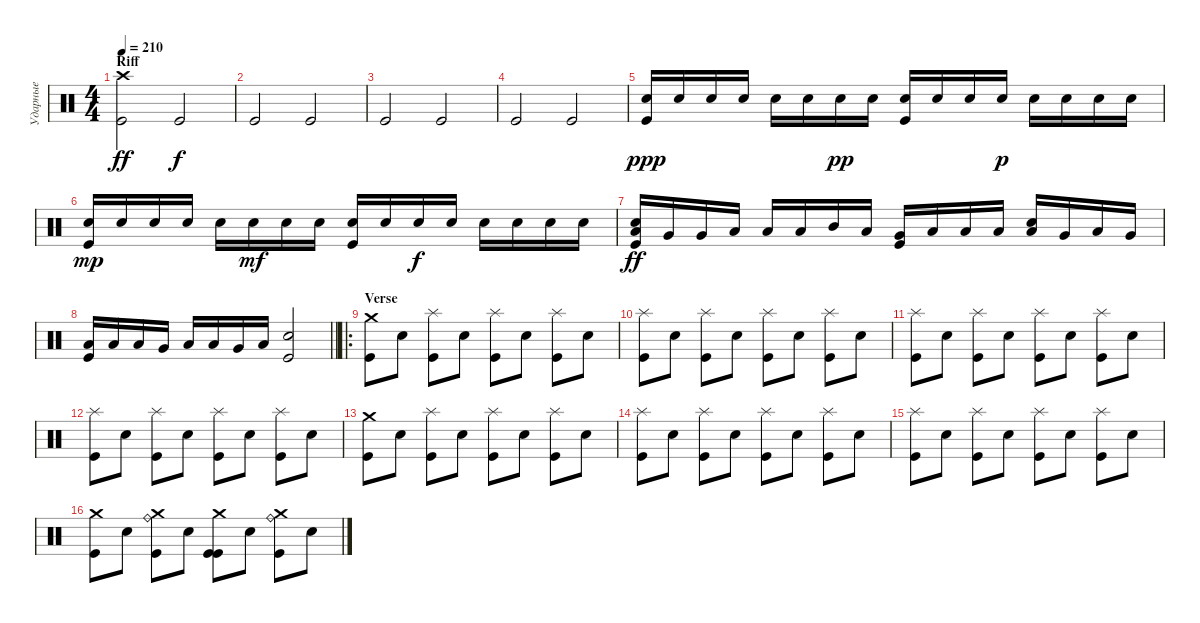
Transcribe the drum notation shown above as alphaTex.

\track ("Ударные" "Ударные") {instrument percussion}
\staff {score}
\articulation defaults
\ts (4 4)
\section ("" "Riff")
\tempo 210
\clef neutral
\ks c
("Crash high (hit)" "Kick (hit)").2{dy ff} "Kick (hit)".2{dy f} |
"Kick (hit)".2 "Kick (hit)".2 |
"Kick (hit)".2 "Kick (hit)".2 |
"Kick (hit)".2 "Kick (hit)".2 |
("Electric Snare (hit)" "Kick (hit)").16{dy ppp} "Electric Snare (hit)".16 "Electric Snare (hit)".16 "Electric Snare (hit)".16 "Electric Snare (hit)".16 "Electric Snare (hit)".16 "Electric Snare (hit)".16{dy pp} "Electric Snare (hit)".16 ("Electric Snare (hit)" "Kick (hit)").16 "Electric Snare (hit)".16 "Electric Snare (hit)".16 "Electric Snare (hit)".16{dy p} "Electric Snare (hit)".16 "Electric Snare (hit)".16 "Electric Snare (hit)".16 "Electric Snare (hit)".16 |
("Electric Snare (hit)" "Kick (hit)").16{dy mp} "Electric Snare (hit)".16 "Electric Snare (hit)".16 "Electric Snare (hit)".16 "Electric Snare (hit)".16 "Electric Snare (hit)".16{dy mf} "Electric Snare (hit)".16 "Electric Snare (hit)".16 ("Electric Snare (hit)" "Kick (hit)").16 "Electric Snare (hit)".16 "Electric Snare (hit)".16{dy f} "Electric Snare (hit)".16 "Electric Snare (hit)".16 "Electric Snare (hit)".16 "Electric Snare (hit)".16 "Electric Snare (hit)".16 |
("Electric Snare (hit)" "Low Tom (hit)" "Kick (hit)").16{dy ff} "Very Low Tom (hit)".16 "Very Low Tom (hit)".16 "Low Floor Tom (hit)".16 "Low Floor Tom (hit)".16 "Low Floor Tom (hit)".16 "Mid Tom (hit)".16 "Low Tom (hit)".16 ("Very Low Tom (hit)" "Kick (hit)").16 "Low Floor Tom (hit)".16 "Low Floor Tom (hit)".16 "Low Floor Tom (hit)".16 ("Electric Snare (hit)" "Low Tom (hit)").16 "Very Low Tom (hit)".16 "Low Floor Tom (hit)".16 "Very Low Tom (hit)".16 |
\barLineRight lightlight
("Low Floor Tom (hit)" "Kick (hit)").16 "Low Floor Tom (hit)".16 "Low Tom (hit)".16 "Very Low Tom (hit)".16 "Low Floor Tom (hit)".16 "Low Floor Tom (hit)".16 "Very Low Tom (hit)".16 "Low Floor Tom (hit)".16 ("Electric Snare (hit)" "Kick (hit)").2 |
\ro
\section ("" "Verse")
("Crash medium (hit)" "Kick (hit)").8 "Electric Snare (hit)".8 ("Splash (hit)" "Kick (hit)").8 "Electric Snare (hit)".8 ("Splash (hit)" "Kick (hit)").8 "Electric Snare (hit)".8 ("Splash (hit)" "Kick (hit)").8 "Electric Snare (hit)".8 |
("Splash (hit)" "Kick (hit)").8 "Electric Snare (hit)".8 ("Splash (hit)" "Kick (hit)").8 "Electric Snare (hit)".8 ("Splash (hit)" "Kick (hit)").8 "Electric Snare (hit)".8 ("Splash (hit)" "Kick (hit)").8 "Electric Snare (hit)".8 |
("Splash (hit)" "Kick (hit)").8 "Electric Snare (hit)".8 ("Splash (hit)" "Kick (hit)").8 "Electric Snare (hit)".8 ("Splash (hit)" "Kick (hit)").8 "Electric Snare (hit)".8 ("Splash (hit)" "Kick (hit)").8 "Electric Snare (hit)".8 |
("Splash (hit)" "Kick (hit)").8 "Electric Snare (hit)".8 ("Splash (hit)" "Kick (hit)").8 "Electric Snare (hit)".8 ("Splash (hit)" "Kick (hit)").8 "Electric Snare (hit)".8 ("Splash (hit)" "Kick (hit)").8 "Electric Snare (hit)".8 |
("Crash medium (hit)" "Kick (hit)").8 "Electric Snare (hit)".8 ("Splash (hit)" "Kick (hit)").8 "Electric Snare (hit)".8 ("Splash (hit)" "Kick (hit)").8 "Electric Snare (hit)".8 ("Splash (hit)" "Kick (hit)").8 "Electric Snare (hit)".8 |
("Splash (hit)" "Kick (hit)").8 "Electric Snare (hit)".8 ("Splash (hit)" "Kick (hit)").8 "Electric Snare (hit)".8 ("Splash (hit)" "Kick (hit)").8 "Electric Snare (hit)".8 ("Splash (hit)" "Kick (hit)").8 "Electric Snare (hit)".8 |
("Splash (hit)" "Kick (hit)").8 "Electric Snare (hit)".8 ("Splash (hit)" "Kick (hit)").8 "Electric Snare (hit)".8 ("Splash (hit)" "Kick (hit)").8 "Electric Snare (hit)".8 ("Splash (hit)" "Kick (hit)").8 "Electric Snare (hit)".8 |
("Crash medium (hit)" "Kick (hit)").8 "Electric Snare (hit)".8 ("Ride (bell)" "Crash medium (hit)" "Kick (hit)").8 "Electric Snare (hit)".8 ("Kick (hit)" "Crash medium (hit)" "Kick (hit)").8 "Electric Snare (hit)".8 ("Ride (bell)" "Crash medium (hit)" "Kick (hit)").8 "Electric Snare (hit)".8
